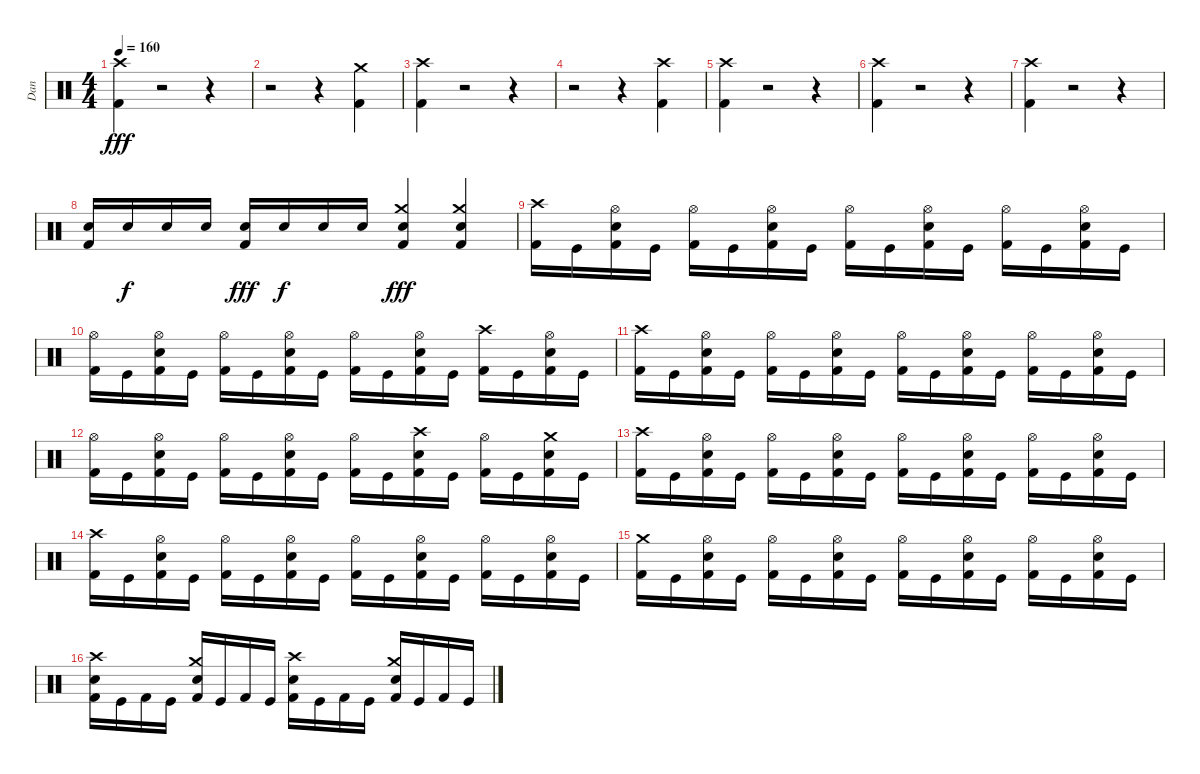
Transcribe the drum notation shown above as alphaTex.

\track ("Dan " "Dan ") {instrument percussion}
\staff {score}
\articulation defaults
\ts (4 4)
\tempo 160
\clef neutral
\ks c
("Crash high (hit)" "Kick (hit) 2").4{dy fff} r.2 r.4 |
r.2 r.4 ("Crash medium (hit)" "Kick (hit) 2").4 |
("Crash high (hit)" "Kick (hit) 2").4 r.2 r.4 |
r.2 r.4 ("Crash high (hit)" "Kick (hit) 2").4 |
("Crash high (hit)" "Kick (hit) 2").4 r.2 r.4 |
("Crash high (hit)" "Kick (hit) 2").4 r.2 r.4 |
("Crash high (hit)" "Kick (hit) 2").4 r.2 r.4 |
("Electric Snare (hit)" "Kick (hit) 2").16 "Electric Snare (hit)".16{dy f} "Electric Snare (hit)".16 "Electric Snare (hit)".16 ("Electric Snare (hit)" "Kick (hit) 2").16{dy fff} "Electric Snare (hit)".16{dy f} "Electric Snare (hit)".16 "Electric Snare (hit)".16 ("Crash medium (hit)" "Electric Snare (hit)" "Kick (hit) 2").4{dy fff} ("Crash medium (hit)" "Electric Snare (hit)" "Kick (hit) 2").4 |
("Crash high (hit)" "Kick (hit) 2").16 "Kick (hit)".16 ("Hi-Hat (open)" "Electric Snare (hit)" "Kick (hit) 2").16 "Kick (hit)".16 ("Hi-Hat (open)" "Kick (hit) 2").16 "Kick (hit)".16 ("Hi-Hat (open)" "Electric Snare (hit)" "Kick (hit) 2").16 "Kick (hit)".16 ("Hi-Hat (open)" "Kick (hit) 2").16 "Kick (hit)".16 ("Hi-Hat (open)" "Electric Snare (hit)" "Kick (hit) 2").16 "Kick (hit)".16 ("Hi-Hat (open)" "Kick (hit) 2").16 "Kick (hit)".16 ("Hi-Hat (open)" "Electric Snare (hit)" "Kick (hit) 2").16 "Kick (hit)".16 |
("Hi-Hat (open)" "Kick (hit) 2").16 "Kick (hit)".16 ("Hi-Hat (open)" "Electric Snare (hit)" "Kick (hit) 2").16 "Kick (hit)".16 ("Hi-Hat (open)" "Kick (hit) 2").16 "Kick (hit)".16 ("Hi-Hat (open)" "Electric Snare (hit)" "Kick (hit) 2").16 "Kick (hit)".16 ("Hi-Hat (open)" "Kick (hit) 2").16 "Kick (hit)".16 ("Hi-Hat (open)" "Electric Snare (hit)" "Kick (hit) 2").16 "Kick (hit)".16 ("Crash high (hit)" "Kick (hit) 2").16 "Kick (hit)".16 ("Hi-Hat (open)" "Electric Snare (hit)" "Kick (hit) 2").16 "Kick (hit)".16 |
("Crash high (hit)" "Kick (hit) 2").16 "Kick (hit)".16 ("Hi-Hat (open)" "Electric Snare (hit)" "Kick (hit) 2").16 "Kick (hit)".16 ("Hi-Hat (open)" "Kick (hit) 2").16 "Kick (hit)".16 ("Hi-Hat (open)" "Electric Snare (hit)" "Kick (hit) 2").16 "Kick (hit)".16 ("Hi-Hat (open)" "Kick (hit) 2").16 "Kick (hit)".16 ("Hi-Hat (open)" "Electric Snare (hit)" "Kick (hit) 2").16 "Kick (hit)".16 ("Hi-Hat (open)" "Kick (hit) 2").16 "Kick (hit)".16 ("Hi-Hat (open)" "Electric Snare (hit)" "Kick (hit) 2").16 "Kick (hit)".16 |
("Hi-Hat (open)" "Kick (hit) 2").16 "Kick (hit)".16 ("Hi-Hat (open)" "Electric Snare (hit)" "Kick (hit) 2").16 "Kick (hit)".16 ("Hi-Hat (open)" "Kick (hit) 2").16 "Kick (hit)".16 ("Hi-Hat (open)" "Electric Snare (hit)" "Kick (hit) 2").16 "Kick (hit)".16 ("Hi-Hat (open)" "Kick (hit) 2").16 "Kick (hit)".16 ("Crash high (hit)" "Electric Snare (hit)" "Kick (hit) 2").16 "Kick (hit)".16 ("Hi-Hat (open)" "Kick (hit) 2").16 "Kick (hit)".16 ("Crash medium (hit)" "Electric Snare (hit)" "Kick (hit) 2").16 "Kick (hit)".16 |
("Crash high (hit)" "Kick (hit) 2").16 "Kick (hit)".16 ("Hi-Hat (open)" "Electric Snare (hit)" "Kick (hit) 2").16 "Kick (hit)".16 ("Hi-Hat (open)" "Kick (hit) 2").16 "Kick (hit)".16 ("Hi-Hat (open)" "Electric Snare (hit)" "Kick (hit) 2").16 "Kick (hit)".16 ("Hi-Hat (open)" "Kick (hit) 2").16 "Kick (hit)".16 ("Hi-Hat (open)" "Electric Snare (hit)" "Kick (hit) 2").16 "Kick (hit)".16 ("Hi-Hat (open)" "Kick (hit) 2").16 "Kick (hit)".16 ("Hi-Hat (open)" "Electric Snare (hit)" "Kick (hit) 2").16 "Kick (hit)".16 |
("Crash high (hit)" "Kick (hit) 2").16 "Kick (hit)".16 ("Hi-Hat (open)" "Electric Snare (hit)" "Kick (hit) 2").16 "Kick (hit)".16 ("Hi-Hat (open)" "Kick (hit) 2").16 "Kick (hit)".16 ("Hi-Hat (open)" "Electric Snare (hit)" "Kick (hit) 2").16 "Kick (hit)".16 ("Hi-Hat (open)" "Kick (hit) 2").16 "Kick (hit)".16 ("Hi-Hat (open)" "Electric Snare (hit)" "Kick (hit) 2").16 "Kick (hit)".16 ("Hi-Hat (open)" "Kick (hit) 2").16 "Kick (hit)".16 ("Hi-Hat (open)" "Electric Snare (hit)" "Kick (hit) 2").16 "Kick (hit)".16 |
("Crash medium (hit)" "Kick (hit) 2").16 "Kick (hit)".16 ("Hi-Hat (open)" "Electric Snare (hit)" "Kick (hit) 2").16 "Kick (hit)".16 ("Hi-Hat (open)" "Kick (hit) 2").16 "Kick (hit)".16 ("Hi-Hat (open)" "Electric Snare (hit)" "Kick (hit) 2").16 "Kick (hit)".16 ("Hi-Hat (open)" "Kick (hit) 2").16 "Kick (hit)".16 ("Hi-Hat (open)" "Electric Snare (hit)" "Kick (hit) 2").16 "Kick (hit)".16 ("Hi-Hat (open)" "Kick (hit) 2").16 "Kick (hit)".16 ("Hi-Hat (open)" "Electric Snare (hit)" "Kick (hit) 2").16 "Kick (hit)".16 |
("Crash high (hit)" "Electric Snare (hit)" "Kick (hit) 2").16 "Kick (hit)".16 "Kick (hit) 2".16 "Kick (hit)".16 ("Crash medium (hit)" "Electric Snare (hit)" "Kick (hit) 2").16 "Kick (hit)".16 "Kick (hit) 2".16 "Kick (hit)".16 ("Crash high (hit)" "Electric Snare (hit)" "Kick (hit) 2").16 "Kick (hit)".16 "Kick (hit) 2".16 "Kick (hit)".16 ("Crash medium (hit)" "Electric Snare (hit)" "Kick (hit) 2").16 "Kick (hit)".16 "Kick (hit) 2".16 "Kick (hit)".16
